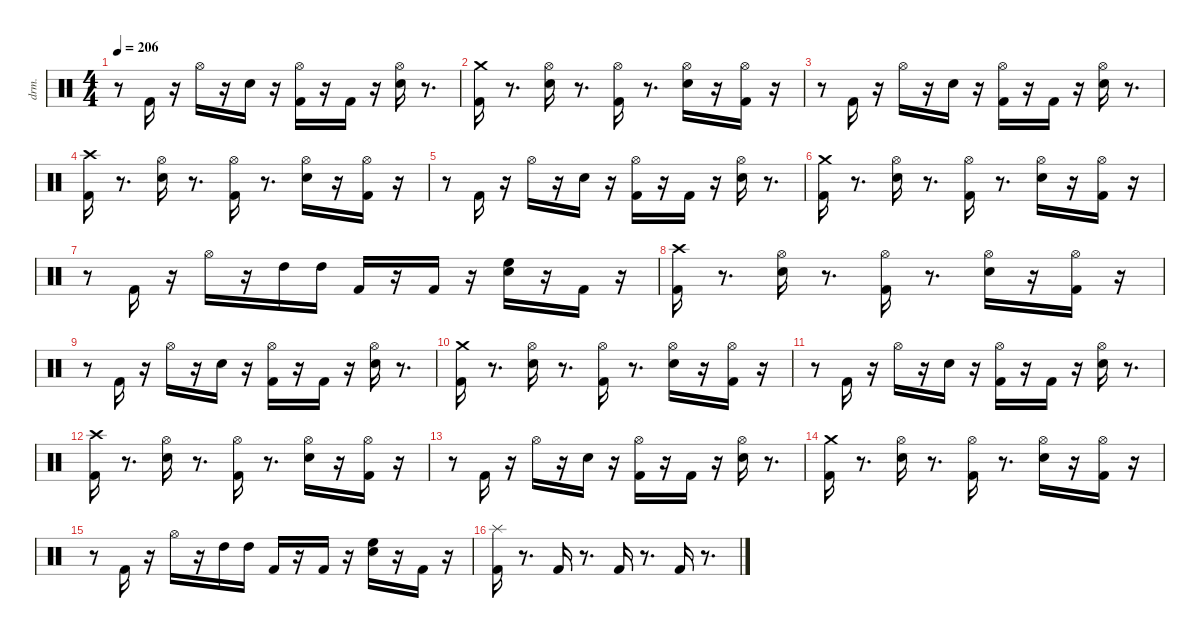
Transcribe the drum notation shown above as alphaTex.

\defaultSystemsLayout 4
\hideDynamics
\bracketExtendMode nobrackets
\otherSystemsTrackNameOrientation horizontal
\track ("EZdrummer 3" "drm.") {instrument percussion}
\staff {score}
\articulation defaults
\ts (4 4)
\tempo 206
\clef neutral
\ks aminor
r.8{dy fff beam Down} "Kick (hit) 2".16{dy ff beam Up} r.16{beam Up} "Hi-Hat (open)"{acc #}.16{dy mf beam Down} r.16{beam Down} "Snare (hit) 2".16{dy ff beam Down} r.16{beam Down} ("Kick (hit) 2" "Hi-Hat (open)"{acc #}).16{dy mf beam Down} r.16{beam Down} "Kick (hit) 2".16{dy fff beam Up} r.16{beam Up} ("Snare (hit) 2" "Hi-Hat (open)"{acc #}).16{dy ff beam Down} r.8{d beam Down} |
("Kick (hit) 2" "Crash medium (hit)").16{dy fff beam Down} r.8{d beam Down} ("Snare (hit) 2" "Hi-Hat (open)"{acc #}).16{dy mf beam Down} r.8{d beam Down} ("Kick (hit) 2" "Hi-Hat (open)"{acc #}).16{dy fff beam Down} r.8{d beam Down} ("Snare (hit) 2" "Hi-Hat (open)"{acc #}).16{dy f beam Down} r.16{beam Down} ("Kick (hit) 2" "Hi-Hat (open)"{acc #}).16{dy fff beam Down} r.16{beam Down} |
r.8{beam Down} "Kick (hit) 2".16{dy ff beam Up} r.16{beam Up} "Hi-Hat (open)"{acc #}.16{dy mf beam Down} r.16{beam Down} "Snare (hit) 2".16{dy ff beam Down} r.16{beam Down} ("Kick (hit) 2" "Hi-Hat (open)"{acc #}).16{beam Down} r.16{beam Down} "Kick (hit) 2".16{dy fff beam Up} r.16{beam Up} ("Snare (hit) 2" "Hi-Hat (open)"{acc #}).16{dy ff beam Down} r.8{d beam Down} |
("Kick (hit) 2" "Crash high (hit)"{acc #}).16{beam Down} r.8{d beam Down} ("Snare (hit) 2" "Hi-Hat (open)"{acc #}).16{beam Down} r.8{d beam Down} ("Kick (hit) 2" "Hi-Hat (open)"{acc #}).16{beam Down} r.8{d beam Down} ("Snare (hit) 2" "Hi-Hat (open)"{acc #}).16{beam Down} r.16{beam Down} ("Kick (hit) 2" "Hi-Hat (open)"{acc #}).16{beam Down} r.16{beam Down} |
r.8{beam Down} "Kick (hit) 2".16{beam Up} r.16{beam Up} "Hi-Hat (open)"{acc #}.16{dy mf beam Down} r.16{beam Down} "Snare (hit) 2".16{dy ff beam Down} r.16{beam Down} ("Kick (hit) 2" "Hi-Hat (open)"{acc #}).16{dy mf beam Down} r.16{beam Down} "Kick (hit) 2".16{dy fff beam Up} r.16{beam Up} ("Snare (hit) 2" "Hi-Hat (open)"{acc #}).16{dy ff beam Down} r.8{d beam Down} |
("Kick (hit) 2" "Crash medium (hit)").16{dy fff beam Down} r.8{d beam Down} ("Snare (hit) 2" "Hi-Hat (open)"{acc #}).16{dy mf beam Down} r.8{d beam Down} ("Kick (hit) 2" "Hi-Hat (open)"{acc #}).16{dy ff beam Down} r.8{d beam Down} ("Snare (hit) 2" "Hi-Hat (open)"{acc #}).16{beam Down} r.16{beam Down} ("Kick (hit) 2" "Hi-Hat (open)"{acc #}).16{beam Down} r.16{beam Down} |
r.8{beam Down} "Kick (hit) 2".16{beam Up} r.16{beam Up} "Hi-Hat (open)"{acc #}.16{dy mf beam Down} r.16{beam Down} "High Tom (hit)".16{dy fff beam Down} "High Tom (hit)".16{dy ff beam Down} "Kick (hit) 2".16{dy mf beam Up} r.16{beam Up} "Kick (hit) 2".16{dy fff beam Up} r.16{beam Up} ("Snare (hit) 2" "High Floor Tom (hit)").16{beam Down} r.16{beam Down} "Kick (hit) 2".16{dy mp beam Up} r.16{beam Up} |
("Kick (hit) 2" "Crash high (hit)"{acc #}).16{dy ff beam Down} r.8{d beam Down} ("Snare (hit) 2" "Hi-Hat (open)"{acc #}).16{beam Down} r.8{d beam Down} ("Kick (hit) 2" "Hi-Hat (open)"{acc #}).16{dy fff beam Down} r.8{d beam Down} ("Snare (hit) 2" "Hi-Hat (open)"{acc #}).16{dy f beam Down} r.16{beam Down} ("Kick (hit) 2" "Hi-Hat (open)"{acc #}).16{dy fff beam Down} r.16{beam Down} |
r.8{beam Down} "Kick (hit) 2".16{dy ff beam Up} r.16{beam Up} "Hi-Hat (open)"{acc #}.16{dy mf beam Down} r.16{beam Down} "Snare (hit) 2".16{dy ff beam Down} r.16{beam Down} ("Kick (hit) 2" "Hi-Hat (open)"{acc #}).16{beam Down} r.16{beam Down} "Kick (hit) 2".16{dy fff beam Up} r.16{beam Up} ("Snare (hit) 2" "Hi-Hat (open)"{acc #}).16{dy f beam Down} r.8{d beam Down} |
("Kick (hit) 2" "Crash medium (hit)").16{dy fff beam Down} r.8{d beam Down} ("Snare (hit) 2" "Hi-Hat (open)"{acc #}).16{dy mf beam Down} r.8{d beam Down} ("Kick (hit) 2" "Hi-Hat (open)"{acc #}).16{dy fff beam Down} r.8{d beam Down} ("Snare (hit) 2" "Hi-Hat (open)"{acc #}).16{dy ff beam Down} r.16{beam Down} ("Kick (hit) 2" "Hi-Hat (open)"{acc #}).16{beam Down} r.16{beam Down} |
r.8{beam Down} "Kick (hit) 2".16{beam Up} r.16{beam Up} "Hi-Hat (open)"{acc #}.16{dy mf beam Down} r.16{beam Down} "Snare (hit) 2".16{dy ff beam Down} r.16{beam Down} ("Kick (hit) 2" "Hi-Hat (open)"{acc #}).16{dy mf beam Down} r.16{beam Down} "Kick (hit) 2".16{dy fff beam Up} r.16{beam Up} ("Snare (hit) 2" "Hi-Hat (open)"{acc #}).16{dy ff beam Down} r.8{d beam Down} |
("Kick (hit) 2" "Crash high (hit)"{acc #}).16{beam Down} r.8{d beam Down} ("Snare (hit) 2" "Hi-Hat (open)"{acc #}).16{dy mf beam Down} r.8{d beam Down} ("Kick (hit) 2" "Hi-Hat (open)"{acc #}).16{dy ff beam Down} r.8{d beam Down} ("Snare (hit) 2" "Hi-Hat (open)"{acc #}).16{beam Down} r.16{beam Down} ("Kick (hit) 2" "Hi-Hat (open)"{acc #}).16{beam Down} r.16{beam Down} |
r.8{beam Down} "Kick (hit) 2".16{beam Up} r.16{beam Up} "Hi-Hat (open)"{acc #}.16{dy mf beam Down} r.16{beam Down} "Snare (hit) 2".16{dy ff beam Down} r.16{beam Down} ("Kick (hit) 2" "Hi-Hat (open)"{acc #}).16{dy mf beam Down} r.16{beam Down} "Kick (hit) 2".16{dy fff beam Up} r.16{beam Up} ("Snare (hit) 2" "Hi-Hat (open)"{acc #}).16{dy ff beam Down} r.8{d beam Down} |
("Kick (hit) 2" "Crash medium (hit)").16{beam Down} r.8{d beam Down} ("Snare (hit) 2" "Hi-Hat (open)"{acc #}).16{beam Down} r.8{d beam Down} ("Kick (hit) 2" "Hi-Hat (open)"{acc #}).16{beam Down} r.8{d beam Down} ("Snare (hit) 2" "Hi-Hat (open)"{acc #}).16{beam Down} r.16{beam Down} ("Kick (hit) 2" "Hi-Hat (open)"{acc #}).16{beam Down} r.16{beam Down} |
r.8{beam Down} "Kick (hit) 2".16{beam Up} r.16{beam Up} "Hi-Hat (open)"{acc #}.16{dy mf beam Down} r.16{beam Down} "High Tom (hit)".16{dy fff beam Down} "High Tom (hit)".16{dy ff beam Down} "Kick (hit) 2".16{dy mf beam Up} r.16{beam Up} "Kick (hit) 2".16{dy fff beam Up} r.16{beam Up} ("Snare (hit) 2" "High Floor Tom (hit)").16{beam Down} r.16{beam Down} "Kick (hit) 2".16{dy f beam Up} r.16{beam Up} |
("Kick (hit) 2" "Splash (hit)").16{dy fff beam Down} r.8{d beam Down} "Kick (hit) 2".16{dy mp beam Up} r.8{d beam Up} "Kick (hit) 2".16{dy f beam Up} r.8{d beam Up} "Kick (hit) 2".16{dy mf beam Up} r.8{d beam Up}
